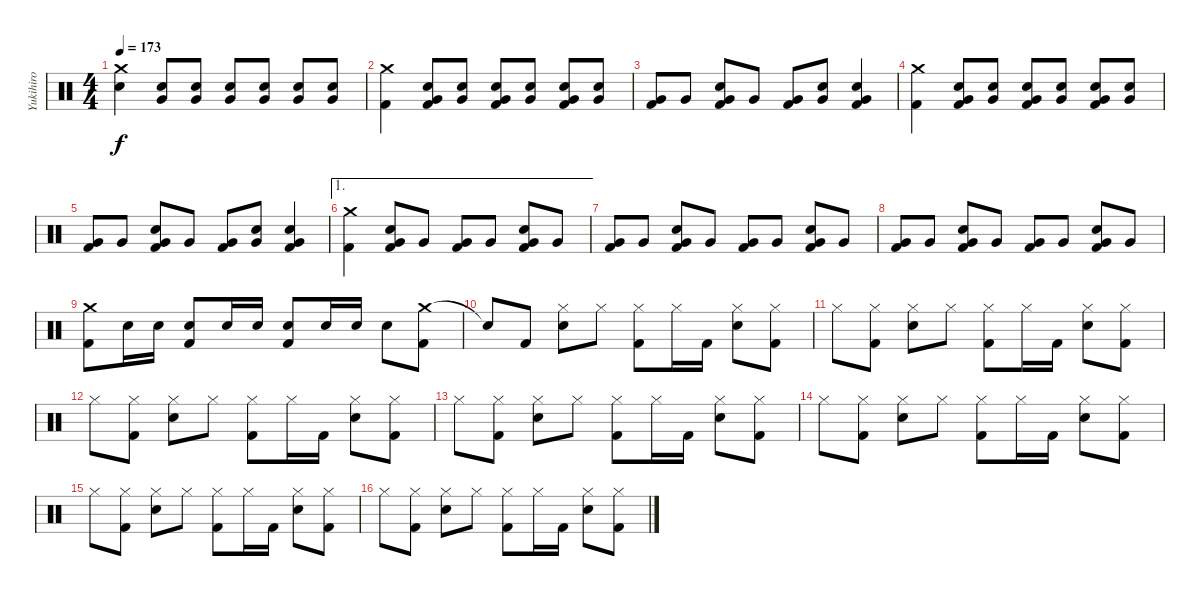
\track ("Yukihiro" "Yukihiro") {instrument percussion}
\staff {score}
\articulation defaults
\ts (4 4)
\tempo 173
\clef neutral
\ks c
("Crash medium (hit)" "Snare (hit) 2").4{dy f} ("Snare (hit) 2" "Very Low Tom (hit)").8 ("Snare (hit) 2" "Very Low Tom (hit)").8 ("Snare (hit) 2" "Very Low Tom (hit)").8 ("Snare (hit) 2" "Very Low Tom (hit)").8 ("Snare (hit) 2" "Very Low Tom (hit)").8 ("Snare (hit) 2" "Very Low Tom (hit)").8 |
("Crash medium (hit)" "Kick (hit) 2").4 ("Snare (hit) 2" "Very Low Tom (hit)" "Kick (hit) 2").8 ("Snare (hit) 2" "Very Low Tom (hit)").8 ("Snare (hit) 2" "Very Low Tom (hit)" "Kick (hit) 2").8 ("Snare (hit) 2" "Very Low Tom (hit)").8 ("Snare (hit) 2" "Very Low Tom (hit)" "Kick (hit) 2").8 ("Snare (hit) 2" "Very Low Tom (hit)").8 |
("Very Low Tom (hit)" "Kick (hit) 2").8 "Very Low Tom (hit)".8 ("Snare (hit) 2" "Very Low Tom (hit)" "Kick (hit) 2").8 "Very Low Tom (hit)".8 ("Very Low Tom (hit)" "Kick (hit) 2").8 ("Snare (hit) 2" "Very Low Tom (hit)").8 ("Snare (hit) 2" "Very Low Tom (hit)" "Kick (hit) 2").4 |
("Crash medium (hit)" "Kick (hit) 2").4 ("Snare (hit) 2" "Very Low Tom (hit)" "Kick (hit) 2").8 ("Snare (hit) 2" "Very Low Tom (hit)").8 ("Snare (hit) 2" "Very Low Tom (hit)" "Kick (hit) 2").8 ("Snare (hit) 2" "Very Low Tom (hit)").8 ("Snare (hit) 2" "Very Low Tom (hit)" "Kick (hit) 2").8 ("Snare (hit) 2" "Very Low Tom (hit)").8 |
("Very Low Tom (hit)" "Kick (hit) 2").8 "Very Low Tom (hit)".8 ("Snare (hit) 2" "Very Low Tom (hit)" "Kick (hit) 2").8 "Very Low Tom (hit)".8 ("Very Low Tom (hit)" "Kick (hit) 2").8 ("Snare (hit) 2" "Very Low Tom (hit)").8 ("Snare (hit) 2" "Very Low Tom (hit)" "Kick (hit) 2").4 |
\ae 1
("Crash medium (hit)" "Kick (hit) 2").4 ("Snare (hit) 2" "Very Low Tom (hit)" "Kick (hit) 2").8 "Very Low Tom (hit)".8 ("Very Low Tom (hit)" "Kick (hit) 2").8 "Very Low Tom (hit)".8 ("Snare (hit) 2" "Very Low Tom (hit)" "Kick (hit) 2").8 "Very Low Tom (hit)".8 |
("Very Low Tom (hit)" "Kick (hit) 2").8 "Very Low Tom (hit)".8 ("Snare (hit) 2" "Very Low Tom (hit)" "Kick (hit) 2").8 "Very Low Tom (hit)".8 ("Very Low Tom (hit)" "Kick (hit) 2").8 "Very Low Tom (hit)".8 ("Snare (hit) 2" "Very Low Tom (hit)" "Kick (hit) 2").8 "Very Low Tom (hit)".8 |
("Very Low Tom (hit)" "Kick (hit) 2").8 "Very Low Tom (hit)".8 ("Snare (hit) 2" "Very Low Tom (hit)" "Kick (hit) 2").8 "Very Low Tom (hit)".8 ("Very Low Tom (hit)" "Kick (hit) 2").8 "Very Low Tom (hit)".8 ("Snare (hit) 2" "Very Low Tom (hit)" "Kick (hit) 2").8 "Very Low Tom (hit)".8 |
("Crash medium (hit)" "Kick (hit) 2").8 "Snare (hit) 2".16 "Snare (hit) 2".16 ("Snare (hit) 2" "Kick (hit) 2").8 "Snare (hit) 2".16 "Snare (hit) 2".16 ("Snare (hit) 2" "Kick (hit) 2").8 "Snare (hit) 2".16 "Snare (hit) 2".16 "Snare (hit) 2".8 ("Crash medium (hit)" "Kick (hit) 2").8 |
"Snare (hit)"{t}.8 "Kick (hit) 2".8 ("Hi-Hat (closed)" "Snare (hit) 2").8 "Hi-Hat (closed)".8 ("Hi-Hat (closed)" "Kick (hit) 2").8 "Hi-Hat (closed)".16 "Kick (hit) 2".16 ("Hi-Hat (closed)" "Snare (hit) 2").8 ("Hi-Hat (closed)" "Kick (hit) 2").8 |
"Hi-Hat (closed)".8 ("Hi-Hat (closed)" "Kick (hit) 2").8 ("Hi-Hat (closed)" "Snare (hit) 2").8 "Hi-Hat (closed)".8 ("Hi-Hat (closed)" "Kick (hit) 2").8 "Hi-Hat (closed)".16 "Kick (hit) 2".16 ("Hi-Hat (closed)" "Snare (hit) 2").8 ("Hi-Hat (closed)" "Kick (hit) 2").8 |
"Hi-Hat (closed)".8 ("Hi-Hat (closed)" "Kick (hit) 2").8 ("Hi-Hat (closed)" "Snare (hit) 2").8 "Hi-Hat (closed)".8 ("Hi-Hat (closed)" "Kick (hit) 2").8 "Hi-Hat (closed)".16 "Kick (hit) 2".16 ("Hi-Hat (closed)" "Snare (hit) 2").8 ("Hi-Hat (closed)" "Kick (hit) 2").8 |
"Hi-Hat (closed)".8 ("Hi-Hat (closed)" "Kick (hit) 2").8 ("Hi-Hat (closed)" "Snare (hit) 2").8 "Hi-Hat (closed)".8 ("Hi-Hat (closed)" "Kick (hit) 2").8 "Hi-Hat (closed)".16 "Kick (hit) 2".16 ("Hi-Hat (closed)" "Snare (hit) 2").8 ("Hi-Hat (closed)" "Kick (hit) 2").8 |
"Hi-Hat (closed)".8 ("Hi-Hat (closed)" "Kick (hit) 2").8 ("Hi-Hat (closed)" "Snare (hit) 2").8 "Hi-Hat (closed)".8 ("Hi-Hat (closed)" "Kick (hit) 2").8 "Hi-Hat (closed)".16 "Kick (hit) 2".16 ("Hi-Hat (closed)" "Snare (hit) 2").8 ("Hi-Hat (closed)" "Kick (hit) 2").8 |
"Hi-Hat (closed)".8 ("Hi-Hat (closed)" "Kick (hit) 2").8 ("Hi-Hat (closed)" "Snare (hit) 2").8 "Hi-Hat (closed)".8 ("Hi-Hat (closed)" "Kick (hit) 2").8 "Hi-Hat (closed)".16 "Kick (hit) 2".16 ("Hi-Hat (closed)" "Snare (hit) 2").8 ("Hi-Hat (closed)" "Kick (hit) 2").8 |
"Hi-Hat (closed)".8 ("Hi-Hat (closed)" "Kick (hit) 2").8 ("Hi-Hat (closed)" "Snare (hit) 2").8 "Hi-Hat (closed)".8 ("Hi-Hat (closed)" "Kick (hit) 2").8 "Hi-Hat (closed)".16 "Kick (hit) 2".16 ("Hi-Hat (closed)" "Snare (hit) 2").8 ("Hi-Hat (closed)" "Kick (hit) 2").8
